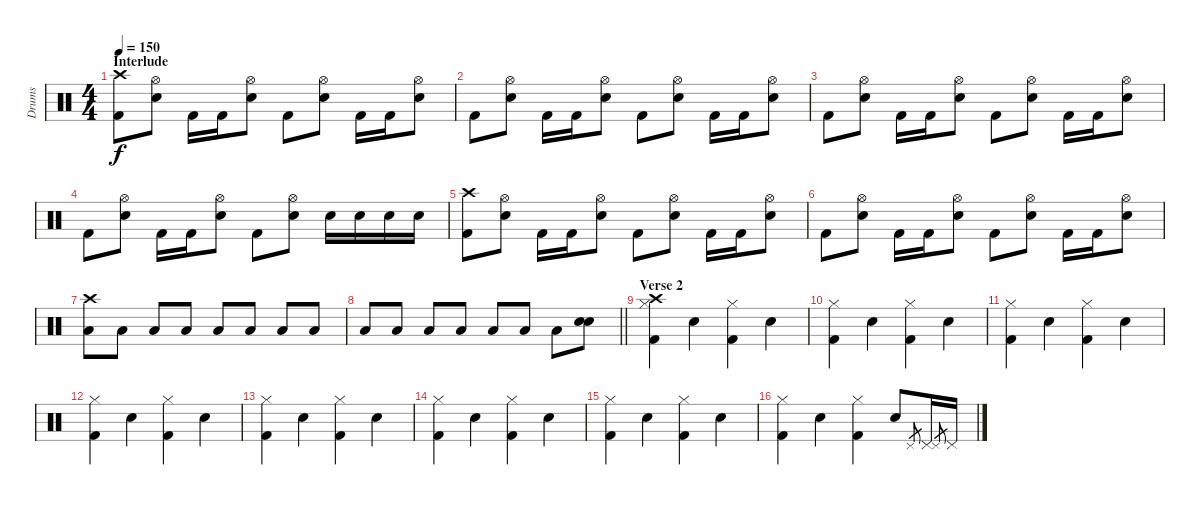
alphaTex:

\track ("Drums" "Drums") {instrument percussion}
\staff {score}
\articulation defaults
\ts (4 4)
\section ("" "Interlude")
\tempo 150
\clef neutral
\ks c
("Kick (hit) 2" "Crash high (hit)").8{dy f} ("Electric Snare (hit)" "Hi-Hat (open)").8 "Kick (hit) 2".16 "Kick (hit) 2".16 ("Electric Snare (hit)" "Hi-Hat (open)").8 "Kick (hit) 2".8 ("Electric Snare (hit)" "Hi-Hat (open)").8 "Kick (hit) 2".16 "Kick (hit) 2".16 ("Electric Snare (hit)" "Hi-Hat (open)").8 |
"Kick (hit) 2".8 ("Electric Snare (hit)" "Hi-Hat (open)").8 "Kick (hit) 2".16 "Kick (hit) 2".16 ("Electric Snare (hit)" "Hi-Hat (open)").8 "Kick (hit) 2".8 ("Electric Snare (hit)" "Hi-Hat (open)").8 "Kick (hit) 2".16 "Kick (hit) 2".16 ("Electric Snare (hit)" "Hi-Hat (open)").8 |
"Kick (hit) 2".8 ("Electric Snare (hit)" "Hi-Hat (open)").8 "Kick (hit) 2".16 "Kick (hit) 2".16 ("Electric Snare (hit)" "Hi-Hat (open)").8 "Kick (hit) 2".8 ("Electric Snare (hit)" "Hi-Hat (open)").8 "Kick (hit) 2".16 "Kick (hit) 2".16 ("Electric Snare (hit)" "Hi-Hat (open)").8 |
"Kick (hit) 2".8 ("Electric Snare (hit)" "Hi-Hat (open)").8 "Kick (hit) 2".16 "Kick (hit) 2".16 ("Electric Snare (hit)" "Hi-Hat (open)").8 "Kick (hit) 2".8 ("Electric Snare (hit)" "Hi-Hat (open)").8 "Electric Snare (hit)".16 "Electric Snare (hit)".16 "Electric Snare (hit)".16 "Electric Snare (hit)".16 |
("Kick (hit) 2" "Crash high (hit)").8 ("Electric Snare (hit)" "Hi-Hat (open)").8 "Kick (hit) 2".16 "Kick (hit) 2".16 ("Electric Snare (hit)" "Hi-Hat (open)").8 "Kick (hit) 2".8 ("Electric Snare (hit)" "Hi-Hat (open)").8 "Kick (hit) 2".16 "Kick (hit) 2".16 ("Electric Snare (hit)" "Hi-Hat (open)").8 |
"Kick (hit) 2".8 ("Electric Snare (hit)" "Hi-Hat (open)").8 "Kick (hit) 2".16 "Kick (hit) 2".16 ("Electric Snare (hit)" "Hi-Hat (open)").8 "Kick (hit) 2".8 ("Electric Snare (hit)" "Hi-Hat (open)").8 "Kick (hit) 2".16 "Kick (hit) 2".16 ("Electric Snare (hit)" "Hi-Hat (open)").8 |
("Low Floor Tom (hit)" "Crash high (hit)").8 "Low Floor Tom (hit)".8 "Low Floor Tom (hit)".8 "Low Floor Tom (hit)".8 "Low Floor Tom (hit)".8 "Low Floor Tom (hit)".8 "Low Floor Tom (hit)".8 "Low Floor Tom (hit)".8 |
\barLineRight lightlight "Low Floor Tom (hit)".8 "Low Floor Tom (hit)".8 "Low Floor Tom (hit)".8 "Low Floor Tom (hit)".8 "Low Floor Tom (hit)".8 "Low Floor Tom (hit)".8 "Low Floor Tom (hit)".8
("Electric Snare (hit)" "Electric Snare (hit)").8 |
\section ("" "Verse 2")
("Kick (hit) 2" "Crash high (hit)" "Hi-Hat (closed)").4 "Electric Snare (hit)".4 ("Kick (hit) 2" "Hi-Hat (closed)").4 "Electric Snare (hit)".4 |
("Kick (hit) 2" "Hi-Hat (closed)").4 "Electric Snare (hit)".4 ("Kick (hit) 2" "Hi-Hat (closed)").4 "Electric Snare (hit)".4 |
("Kick (hit) 2" "Hi-Hat (closed)").4 "Electric Snare (hit)".4 ("Kick (hit) 2" "Hi-Hat (closed)").4 "Electric Snare (hit)".4 |
("Kick (hit) 2" "Hi-Hat (closed)").4 "Electric Snare (hit)".4 ("Kick (hit) 2" "Hi-Hat (closed)").4 "Electric Snare (hit)".4 |
("Kick (hit) 2" "Hi-Hat (closed)").4 "Electric Snare (hit)".4 ("Kick (hit) 2" "Hi-Hat (closed)").4 "Electric Snare (hit)".4 |
("Kick (hit) 2" "Hi-Hat (closed)").4 "Electric Snare (hit)".4 ("Kick (hit) 2" "Hi-Hat (closed)").4 "Electric Snare (hit)".4 |
("Kick (hit) 2" "Hi-Hat (closed)").4 "Electric Snare (hit)".4 ("Kick (hit) 2" "Hi-Hat (closed)").4 "Electric Snare (hit)".4 |
("Kick (hit) 2" "Hi-Hat (closed)").4 "Electric Snare (hit)".4 ("Kick (hit) 2" "Hi-Hat (closed)").4 "Electric Snare (hit)".8 "Pedal Hi-Hat (hit)".8{gr} "Pedal Hi-Hat (hit)".16 "Pedal Hi-Hat (hit)".8{gr} "Pedal Hi-Hat (hit)".16
